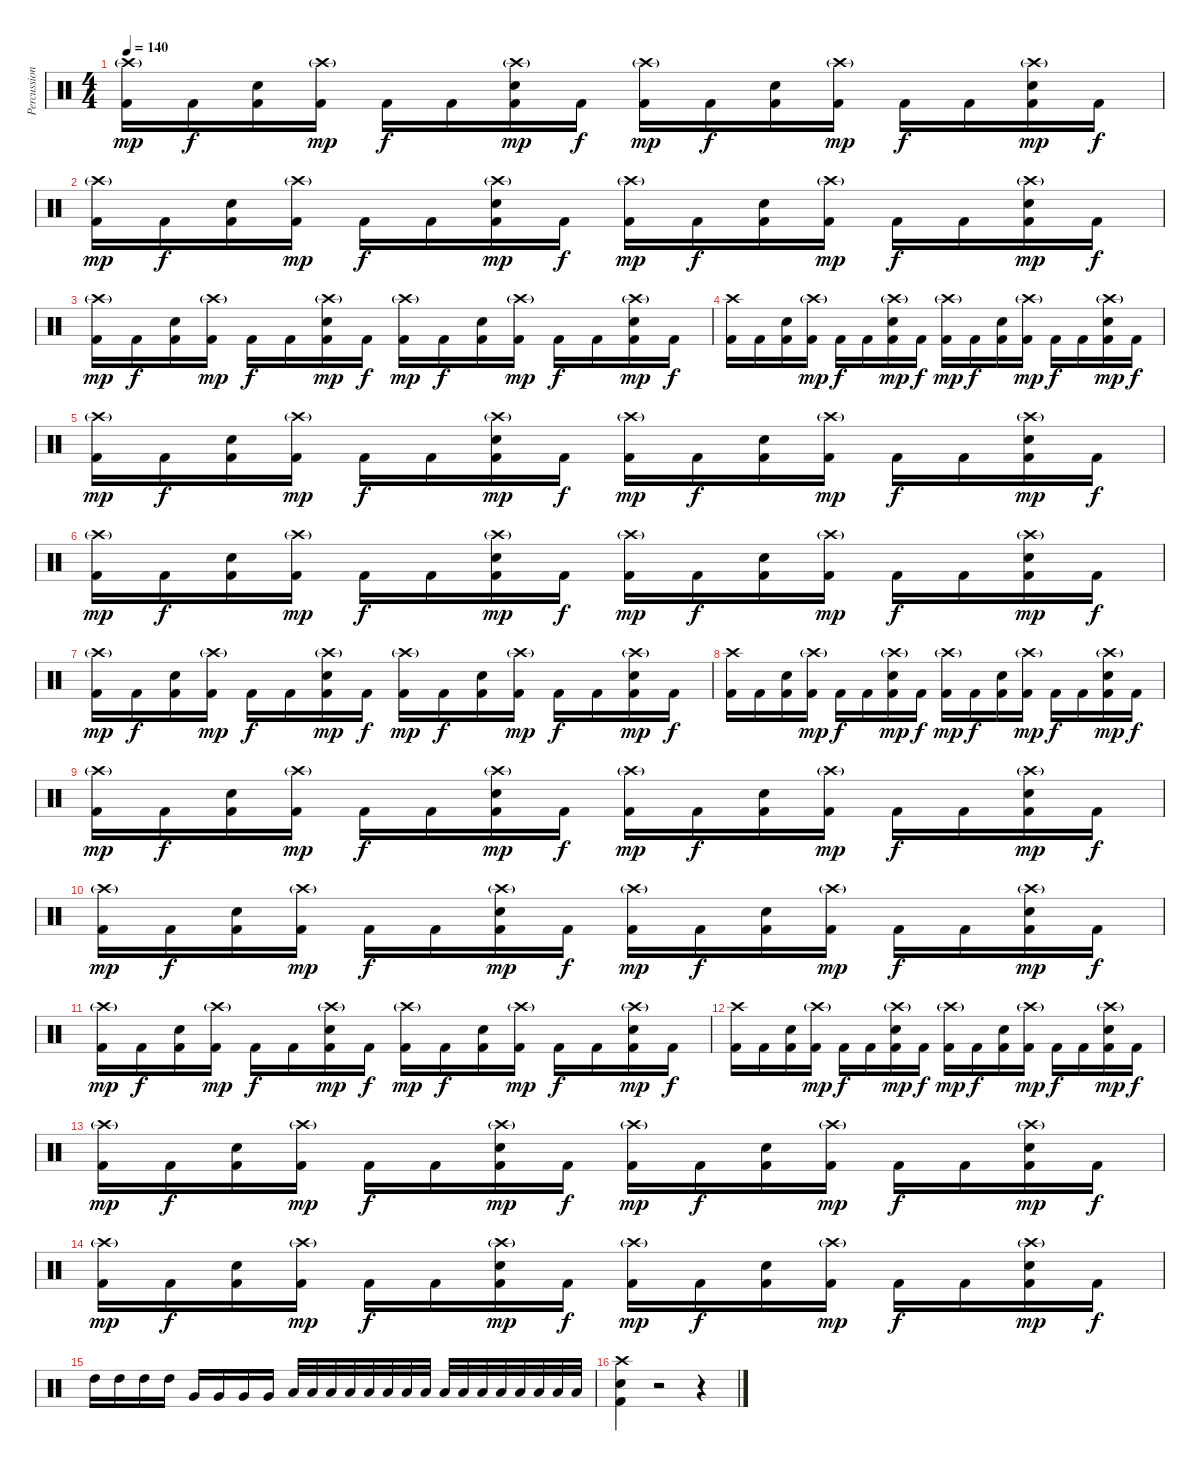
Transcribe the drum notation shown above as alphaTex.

\track ("Percussion" "Percussion") {instrument percussion}
\staff {score}
\articulation defaults
\ts (4 4)
\tempo 140
\clef neutral
\ks c
("Crash high (hit)"{g} "Kick (hit) 2").16{dy mp} "Kick (hit) 2".16{dy f} ("Electric Snare (hit)" "Kick (hit) 2").16 ("Crash high (hit)"{g} "Kick (hit) 2").16{dy mp} "Kick (hit) 2".16{dy f} "Kick (hit) 2".16 ("Crash high (hit)"{g} "Electric Snare (hit)" "Kick (hit) 2").16{dy mp} "Kick (hit) 2".16{dy f} ("Crash high (hit)"{g} "Kick (hit) 2").16{dy mp} "Kick (hit) 2".16{dy f} ("Electric Snare (hit)" "Kick (hit) 2").16 ("Crash high (hit)"{g} "Kick (hit) 2").16{dy mp} "Kick (hit) 2".16{dy f} "Kick (hit) 2".16 ("Crash high (hit)"{g} "Electric Snare (hit)" "Kick (hit) 2").16{dy mp} "Kick (hit) 2".16{dy f} |
("Crash high (hit)"{g} "Kick (hit) 2").16{dy mp} "Kick (hit) 2".16{dy f} ("Electric Snare (hit)" "Kick (hit) 2").16 ("Crash high (hit)"{g} "Kick (hit) 2").16{dy mp} "Kick (hit) 2".16{dy f} "Kick (hit) 2".16 ("Crash high (hit)"{g} "Electric Snare (hit)" "Kick (hit) 2").16{dy mp} "Kick (hit) 2".16{dy f} ("Crash high (hit)"{g} "Kick (hit) 2").16{dy mp} "Kick (hit) 2".16{dy f} ("Electric Snare (hit)" "Kick (hit) 2").16 ("Crash high (hit)"{g} "Kick (hit) 2").16{dy mp} "Kick (hit) 2".16{dy f} "Kick (hit) 2".16 ("Crash high (hit)"{g} "Electric Snare (hit)" "Kick (hit) 2").16{dy mp} "Kick (hit) 2".16{dy f} |
("Crash high (hit)"{g} "Kick (hit) 2").16{dy mp} "Kick (hit) 2".16{dy f} ("Electric Snare (hit)" "Kick (hit) 2").16 ("Crash high (hit)"{g} "Kick (hit) 2").16{dy mp} "Kick (hit) 2".16{dy f} "Kick (hit) 2".16 ("Crash high (hit)"{g} "Electric Snare (hit)" "Kick (hit) 2").16{dy mp} "Kick (hit) 2".16{dy f} ("Crash high (hit)"{g} "Kick (hit) 2").16{dy mp} "Kick (hit) 2".16{dy f} ("Electric Snare (hit)" "Kick (hit) 2").16 ("Crash high (hit)"{g} "Kick (hit) 2").16{dy mp} "Kick (hit) 2".16{dy f} "Kick (hit) 2".16 ("Crash high (hit)"{g} "Electric Snare (hit)" "Kick (hit) 2").16{dy mp} "Kick (hit) 2".16{dy f} |
("Crash high (hit)" "Kick (hit) 2").16 "Kick (hit) 2".16 ("Electric Snare (hit)" "Kick (hit) 2").16 ("Crash high (hit)"{g} "Kick (hit) 2").16{dy mp} "Kick (hit) 2".16{dy f} "Kick (hit) 2".16 ("Crash high (hit)"{g} "Electric Snare (hit)" "Kick (hit) 2").16{dy mp} "Kick (hit) 2".16{dy f} ("Crash high (hit)"{g} "Kick (hit) 2").16{dy mp} "Kick (hit) 2".16{dy f} ("Electric Snare (hit)" "Kick (hit) 2").16 ("Crash high (hit)"{g} "Kick (hit) 2").16{dy mp} "Kick (hit) 2".16{dy f} "Kick (hit) 2".16 ("Crash high (hit)"{g} "Electric Snare (hit)" "Kick (hit) 2").16{dy mp} "Kick (hit) 2".16{dy f} |
("Crash high (hit)"{g} "Kick (hit) 2").16{dy mp} "Kick (hit) 2".16{dy f} ("Electric Snare (hit)" "Kick (hit) 2").16 ("Crash high (hit)"{g} "Kick (hit) 2").16{dy mp} "Kick (hit) 2".16{dy f} "Kick (hit) 2".16 ("Crash high (hit)"{g} "Electric Snare (hit)" "Kick (hit) 2").16{dy mp} "Kick (hit) 2".16{dy f} ("Crash high (hit)"{g} "Kick (hit) 2").16{dy mp} "Kick (hit) 2".16{dy f} ("Electric Snare (hit)" "Kick (hit) 2").16 ("Crash high (hit)"{g} "Kick (hit) 2").16{dy mp} "Kick (hit) 2".16{dy f} "Kick (hit) 2".16 ("Crash high (hit)"{g} "Electric Snare (hit)" "Kick (hit) 2").16{dy mp} "Kick (hit) 2".16{dy f} |
("Crash high (hit)"{g} "Kick (hit) 2").16{dy mp} "Kick (hit) 2".16{dy f} ("Electric Snare (hit)" "Kick (hit) 2").16 ("Crash high (hit)"{g} "Kick (hit) 2").16{dy mp} "Kick (hit) 2".16{dy f} "Kick (hit) 2".16 ("Crash high (hit)"{g} "Electric Snare (hit)" "Kick (hit) 2").16{dy mp} "Kick (hit) 2".16{dy f} ("Crash high (hit)"{g} "Kick (hit) 2").16{dy mp} "Kick (hit) 2".16{dy f} ("Electric Snare (hit)" "Kick (hit) 2").16 ("Crash high (hit)"{g} "Kick (hit) 2").16{dy mp} "Kick (hit) 2".16{dy f} "Kick (hit) 2".16 ("Crash high (hit)"{g} "Electric Snare (hit)" "Kick (hit) 2").16{dy mp} "Kick (hit) 2".16{dy f} |
("Crash high (hit)"{g} "Kick (hit) 2").16{dy mp} "Kick (hit) 2".16{dy f} ("Electric Snare (hit)" "Kick (hit) 2").16 ("Crash high (hit)"{g} "Kick (hit) 2").16{dy mp} "Kick (hit) 2".16{dy f} "Kick (hit) 2".16 ("Crash high (hit)"{g} "Electric Snare (hit)" "Kick (hit) 2").16{dy mp} "Kick (hit) 2".16{dy f} ("Crash high (hit)"{g} "Kick (hit) 2").16{dy mp} "Kick (hit) 2".16{dy f} ("Electric Snare (hit)" "Kick (hit) 2").16 ("Crash high (hit)"{g} "Kick (hit) 2").16{dy mp} "Kick (hit) 2".16{dy f} "Kick (hit) 2".16 ("Crash high (hit)"{g} "Electric Snare (hit)" "Kick (hit) 2").16{dy mp} "Kick (hit) 2".16{dy f} |
("Crash high (hit)" "Kick (hit) 2").16 "Kick (hit) 2".16 ("Electric Snare (hit)" "Kick (hit) 2").16 ("Crash high (hit)"{g} "Kick (hit) 2").16{dy mp} "Kick (hit) 2".16{dy f} "Kick (hit) 2".16 ("Crash high (hit)"{g} "Electric Snare (hit)" "Kick (hit) 2").16{dy mp} "Kick (hit) 2".16{dy f} ("Crash high (hit)"{g} "Kick (hit) 2").16{dy mp} "Kick (hit) 2".16{dy f} ("Electric Snare (hit)" "Kick (hit) 2").16 ("Crash high (hit)"{g} "Kick (hit) 2").16{dy mp} "Kick (hit) 2".16{dy f} "Kick (hit) 2".16 ("Crash high (hit)"{g} "Electric Snare (hit)" "Kick (hit) 2").16{dy mp} "Kick (hit) 2".16{dy f} |
("Crash high (hit)"{g} "Kick (hit) 2").16{dy mp} "Kick (hit) 2".16{dy f} ("Electric Snare (hit)" "Kick (hit) 2").16 ("Crash high (hit)"{g} "Kick (hit) 2").16{dy mp} "Kick (hit) 2".16{dy f} "Kick (hit) 2".16 ("Crash high (hit)"{g} "Electric Snare (hit)" "Kick (hit) 2").16{dy mp} "Kick (hit) 2".16{dy f} ("Crash high (hit)"{g} "Kick (hit) 2").16{dy mp} "Kick (hit) 2".16{dy f} ("Electric Snare (hit)" "Kick (hit) 2").16 ("Crash high (hit)"{g} "Kick (hit) 2").16{dy mp} "Kick (hit) 2".16{dy f} "Kick (hit) 2".16 ("Crash high (hit)"{g} "Electric Snare (hit)" "Kick (hit) 2").16{dy mp} "Kick (hit) 2".16{dy f} |
("Crash high (hit)"{g} "Kick (hit) 2").16{dy mp} "Kick (hit) 2".16{dy f} ("Electric Snare (hit)" "Kick (hit) 2").16 ("Crash high (hit)"{g} "Kick (hit) 2").16{dy mp} "Kick (hit) 2".16{dy f} "Kick (hit) 2".16 ("Crash high (hit)"{g} "Electric Snare (hit)" "Kick (hit) 2").16{dy mp} "Kick (hit) 2".16{dy f} ("Crash high (hit)"{g} "Kick (hit) 2").16{dy mp} "Kick (hit) 2".16{dy f} ("Electric Snare (hit)" "Kick (hit) 2").16 ("Crash high (hit)"{g} "Kick (hit) 2").16{dy mp} "Kick (hit) 2".16{dy f} "Kick (hit) 2".16 ("Crash high (hit)"{g} "Electric Snare (hit)" "Kick (hit) 2").16{dy mp} "Kick (hit) 2".16{dy f} |
("Crash high (hit)"{g} "Kick (hit) 2").16{dy mp} "Kick (hit) 2".16{dy f} ("Electric Snare (hit)" "Kick (hit) 2").16 ("Crash high (hit)"{g} "Kick (hit) 2").16{dy mp} "Kick (hit) 2".16{dy f} "Kick (hit) 2".16 ("Crash high (hit)"{g} "Electric Snare (hit)" "Kick (hit) 2").16{dy mp} "Kick (hit) 2".16{dy f} ("Crash high (hit)"{g} "Kick (hit) 2").16{dy mp} "Kick (hit) 2".16{dy f} ("Electric Snare (hit)" "Kick (hit) 2").16 ("Crash high (hit)"{g} "Kick (hit) 2").16{dy mp} "Kick (hit) 2".16{dy f} "Kick (hit) 2".16 ("Crash high (hit)"{g} "Electric Snare (hit)" "Kick (hit) 2").16{dy mp} "Kick (hit) 2".16{dy f} |
("Crash high (hit)" "Kick (hit) 2").16 "Kick (hit) 2".16 ("Electric Snare (hit)" "Kick (hit) 2").16 ("Crash high (hit)"{g} "Kick (hit) 2").16{dy mp} "Kick (hit) 2".16{dy f} "Kick (hit) 2".16 ("Crash high (hit)"{g} "Electric Snare (hit)" "Kick (hit) 2").16{dy mp} "Kick (hit) 2".16{dy f} ("Crash high (hit)"{g} "Kick (hit) 2").16{dy mp} "Kick (hit) 2".16{dy f} ("Electric Snare (hit)" "Kick (hit) 2").16 ("Crash high (hit)"{g} "Kick (hit) 2").16{dy mp} "Kick (hit) 2".16{dy f} "Kick (hit) 2".16 ("Crash high (hit)"{g} "Electric Snare (hit)" "Kick (hit) 2").16{dy mp} "Kick (hit) 2".16{dy f} |
("Crash high (hit)"{g} "Kick (hit) 2").16{dy mp} "Kick (hit) 2".16{dy f} ("Electric Snare (hit)" "Kick (hit) 2").16 ("Crash high (hit)"{g} "Kick (hit) 2").16{dy mp} "Kick (hit) 2".16{dy f} "Kick (hit) 2".16 ("Crash high (hit)"{g} "Electric Snare (hit)" "Kick (hit) 2").16{dy mp} "Kick (hit) 2".16{dy f} ("Crash high (hit)"{g} "Kick (hit) 2").16{dy mp} "Kick (hit) 2".16{dy f} ("Electric Snare (hit)" "Kick (hit) 2").16 ("Crash high (hit)"{g} "Kick (hit) 2").16{dy mp} "Kick (hit) 2".16{dy f} "Kick (hit) 2".16 ("Crash high (hit)"{g} "Electric Snare (hit)" "Kick (hit) 2").16{dy mp} "Kick (hit) 2".16{dy f} |
("Crash high (hit)"{g} "Kick (hit) 2").16{dy mp} "Kick (hit) 2".16{dy f} ("Electric Snare (hit)" "Kick (hit) 2").16 ("Crash high (hit)"{g} "Kick (hit) 2").16{dy mp} "Kick (hit) 2".16{dy f} "Kick (hit) 2".16 ("Crash high (hit)"{g} "Electric Snare (hit)" "Kick (hit) 2").16{dy mp} "Kick (hit) 2".16{dy f} ("Crash high (hit)"{g} "Kick (hit) 2").16{dy mp} "Kick (hit) 2".16{dy f} ("Electric Snare (hit)" "Kick (hit) 2").16 ("Crash high (hit)"{g} "Kick (hit) 2").16{dy mp} "Kick (hit) 2".16{dy f} "Kick (hit) 2".16 ("Crash high (hit)"{g} "Electric Snare (hit)" "Kick (hit) 2").16{dy mp} "Kick (hit) 2".16{dy f} |
"High Tom (hit)".16 "High Tom (hit)".16 "High Tom (hit)".16 "High Tom (hit)".16 "Very Low Tom (hit)".16 "Very Low Tom (hit)".16 "Very Low Tom (hit)".16 "Very Low Tom (hit)".16 "Low Tom (hit)".32 "Low Tom (hit)".32 "Low Tom (hit)".32 "Low Tom (hit)".32 "Low Tom (hit)".32 "Low Tom (hit)".32 "Low Tom (hit)".32 "Low Tom (hit)".32 "Low Floor Tom (hit)".32 "Low Floor Tom (hit)".32 "Low Floor Tom (hit)".32 "Low Floor Tom (hit)".32 "Low Floor Tom (hit)".32 "Low Floor Tom (hit)".32 "Low Floor Tom (hit)".32 "Low Floor Tom (hit)".32 |
("Crash high (hit)" "Electric Snare (hit)" "Kick (hit) 2").4 r.2 r.4
